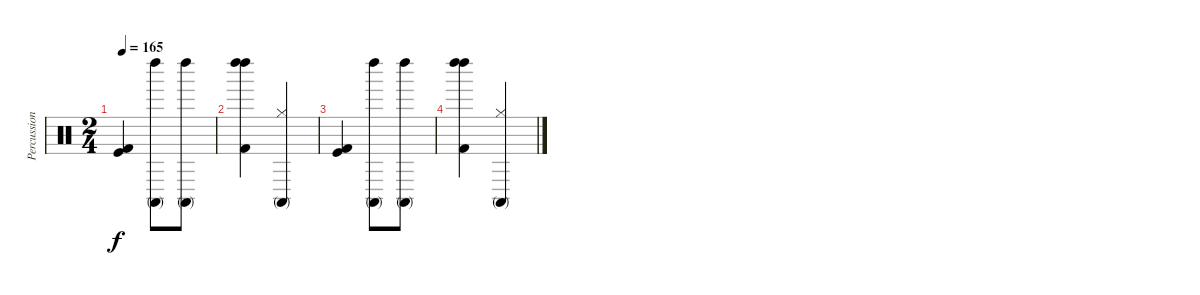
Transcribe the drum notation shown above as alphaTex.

\track ("Percussion" "Percussion") {instrument percussion}
\staff {score}
\articulation defaults
\ts (2 4)
\tempo 165
\clef neutral
\ks c
("Kick (hit)" "Kick (hit) 2").4{dy f} ("Conga high (mute)" "Left Maraca (hit)").8 ("Conga high (mute)" "Left Maraca (hit)").8 |
("Left Maraca (hit)" "Left Maraca (hit)" "Kick (hit) 2").4 ("Conga high (mute)" "Hi-Hat (closed)").4 |
("Kick (hit)" "Kick (hit) 2").4 ("Conga high (mute)" "Left Maraca (hit)").8 ("Conga high (mute)" "Left Maraca (hit)").8 |
("Left Maraca (hit)" "Left Maraca (hit)" "Kick (hit) 2").4 ("Conga high (mute)" "Hi-Hat (closed)").4
